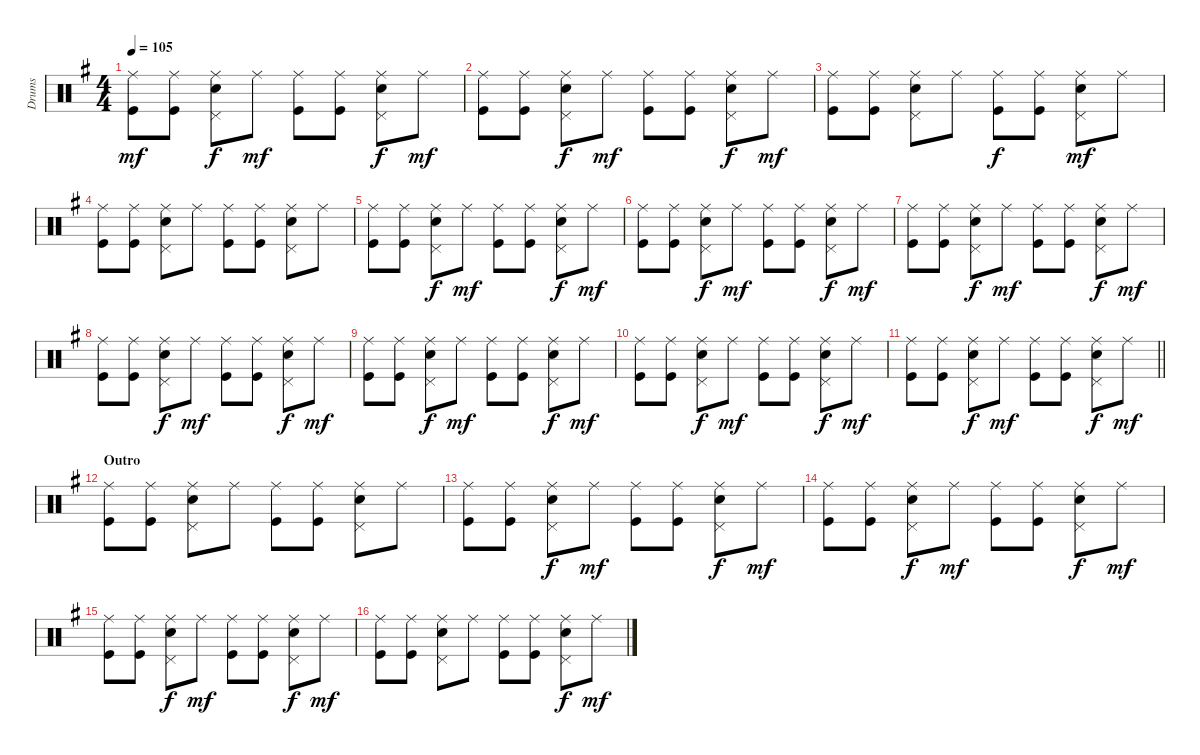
\track ("Drums" "Drums") {instrument percussion}
\staff {score}
\articulation defaults
\ts (4 4)
\tempo 105
\clef neutral
\ks eminor
("Ride (middle)" "Kick (hit)").8{dy mf} ("Ride (middle)" "Kick (hit)").8 ("Ride (middle)" "Pedal Hi-Hat (hit)" "Snare (hit) 2").8{dy f} "Ride (middle)".8{dy mf} ("Ride (middle)" "Kick (hit)").8 ("Ride (middle)" "Kick (hit)").8 ("Ride (middle)" "Pedal Hi-Hat (hit)" "Snare (hit) 2").8{dy f} "Ride (middle)".8{dy mf} |
("Ride (middle)" "Kick (hit)").8 ("Ride (middle)" "Kick (hit)").8 ("Ride (middle)" "Pedal Hi-Hat (hit)" "Snare (hit) 2").8{dy f} "Ride (middle)".8{dy mf} ("Ride (middle)" "Kick (hit)").8 ("Ride (middle)" "Kick (hit)").8 ("Ride (middle)" "Pedal Hi-Hat (hit)" "Snare (hit) 2").8{dy f} "Ride (middle)".8{dy mf} |
("Ride (middle)" "Kick (hit)").8 ("Ride (middle)" "Kick (hit)").8 ("Ride (middle)" "Pedal Hi-Hat (hit)" "Snare (hit) 2").8 "Ride (middle)".8 ("Ride (middle)" "Kick (hit)").8{dy f} ("Ride (middle)" "Kick (hit)").8 ("Ride (middle)" "Pedal Hi-Hat (hit)" "Snare (hit) 2").8{dy mf} "Ride (middle)".8 |
("Ride (middle)" "Kick (hit)").8 ("Ride (middle)" "Kick (hit)").8 ("Ride (middle)" "Pedal Hi-Hat (hit)" "Snare (hit) 2").8 "Ride (middle)".8 ("Ride (middle)" "Kick (hit)").8 ("Ride (middle)" "Kick (hit)").8 ("Ride (middle)" "Pedal Hi-Hat (hit)" "Snare (hit) 2").8 "Ride (middle)".8 |
("Ride (middle)" "Kick (hit)").8 ("Ride (middle)" "Kick (hit)").8 ("Ride (middle)" "Pedal Hi-Hat (hit)" "Snare (hit) 2").8{dy f} "Ride (middle)".8{dy mf} ("Ride (middle)" "Kick (hit)").8 ("Ride (middle)" "Kick (hit)").8 ("Ride (middle)" "Pedal Hi-Hat (hit)" "Snare (hit) 2").8{dy f} "Ride (middle)".8{dy mf} |
("Ride (middle)" "Kick (hit)").8 ("Ride (middle)" "Kick (hit)").8 ("Ride (middle)" "Pedal Hi-Hat (hit)" "Snare (hit) 2").8{dy f} "Ride (middle)".8{dy mf} ("Ride (middle)" "Kick (hit)").8 ("Ride (middle)" "Kick (hit)").8 ("Ride (middle)" "Pedal Hi-Hat (hit)" "Snare (hit) 2").8{dy f} "Ride (middle)".8{dy mf} |
("Ride (middle)" "Kick (hit)").8 ("Ride (middle)" "Kick (hit)").8 ("Ride (middle)" "Pedal Hi-Hat (hit)" "Snare (hit) 2").8{dy f} "Ride (middle)".8{dy mf} ("Ride (middle)" "Kick (hit)").8 ("Ride (middle)" "Kick (hit)").8 ("Ride (middle)" "Pedal Hi-Hat (hit)" "Snare (hit) 2").8{dy f} "Ride (middle)".8{dy mf} |
("Ride (middle)" "Kick (hit)").8 ("Ride (middle)" "Kick (hit)").8 ("Ride (middle)" "Pedal Hi-Hat (hit)" "Snare (hit) 2").8{dy f} "Ride (middle)".8{dy mf} ("Ride (middle)" "Kick (hit)").8 ("Ride (middle)" "Kick (hit)").8 ("Ride (middle)" "Pedal Hi-Hat (hit)" "Snare (hit) 2").8{dy f} "Ride (middle)".8{dy mf} |
("Ride (middle)" "Kick (hit)").8 ("Ride (middle)" "Kick (hit)").8 ("Ride (middle)" "Pedal Hi-Hat (hit)" "Snare (hit) 2").8{dy f} "Ride (middle)".8{dy mf} ("Ride (middle)" "Kick (hit)").8 ("Ride (middle)" "Kick (hit)").8 ("Ride (middle)" "Pedal Hi-Hat (hit)" "Snare (hit) 2").8{dy f} "Ride (middle)".8{dy mf} |
("Ride (middle)" "Kick (hit)").8 ("Ride (middle)" "Kick (hit)").8 ("Ride (middle)" "Pedal Hi-Hat (hit)" "Snare (hit) 2").8{dy f} "Ride (middle)".8{dy mf} ("Ride (middle)" "Kick (hit)").8 ("Ride (middle)" "Kick (hit)").8 ("Ride (middle)" "Pedal Hi-Hat (hit)" "Snare (hit) 2").8{dy f} "Ride (middle)".8{dy mf} |
\barLineRight lightlight
("Ride (middle)" "Kick (hit)").8 ("Ride (middle)" "Kick (hit)").8 ("Ride (middle)" "Pedal Hi-Hat (hit)" "Snare (hit) 2").8{dy f} "Ride (middle)".8{dy mf} ("Ride (middle)" "Kick (hit)").8 ("Ride (middle)" "Kick (hit)").8 ("Ride (middle)" "Pedal Hi-Hat (hit)" "Snare (hit) 2").8{dy f} "Ride (middle)".8{dy mf} |
\section ("" "Outro")
("Ride (middle)" "Kick (hit)").8 ("Ride (middle)" "Kick (hit)").8 ("Ride (middle)" "Pedal Hi-Hat (hit)" "Snare (hit) 2").8 "Ride (middle)".8 ("Ride (middle)" "Kick (hit)").8 ("Ride (middle)" "Kick (hit)").8 ("Ride (middle)" "Pedal Hi-Hat (hit)" "Snare (hit) 2").8 "Ride (middle)".8 |
("Ride (middle)" "Kick (hit)").8 ("Ride (middle)" "Kick (hit)").8 ("Ride (middle)" "Pedal Hi-Hat (hit)" "Snare (hit) 2").8{dy f} "Ride (middle)".8{dy mf} ("Ride (middle)" "Kick (hit)").8 ("Ride (middle)" "Kick (hit)").8 ("Ride (middle)" "Pedal Hi-Hat (hit)" "Snare (hit) 2").8{dy f} "Ride (middle)".8{dy mf} |
("Ride (middle)" "Kick (hit)").8 ("Ride (middle)" "Kick (hit)").8 ("Ride (middle)" "Pedal Hi-Hat (hit)" "Snare (hit) 2").8{dy f} "Ride (middle)".8{dy mf} ("Ride (middle)" "Kick (hit)").8 ("Ride (middle)" "Kick (hit)").8 ("Ride (middle)" "Pedal Hi-Hat (hit)" "Snare (hit) 2").8{dy f} "Ride (middle)".8{dy mf} |
("Ride (middle)" "Kick (hit)").8 ("Ride (middle)" "Kick (hit)").8 ("Ride (middle)" "Pedal Hi-Hat (hit)" "Snare (hit) 2").8{dy f} "Ride (middle)".8{dy mf} ("Ride (middle)" "Kick (hit)").8 ("Ride (middle)" "Kick (hit)").8 ("Ride (middle)" "Pedal Hi-Hat (hit)" "Snare (hit) 2").8{dy f} "Ride (middle)".8{dy mf} |
("Ride (middle)" "Kick (hit)").8 ("Ride (middle)" "Kick (hit)").8 ("Ride (middle)" "Pedal Hi-Hat (hit)" "Snare (hit) 2").8 "Ride (middle)".8 ("Ride (middle)" "Kick (hit)").8 ("Ride (middle)" "Kick (hit)").8 ("Ride (middle)" "Pedal Hi-Hat (hit)" "Snare (hit) 2").8{dy f} "Ride (middle)".8{dy mf}
